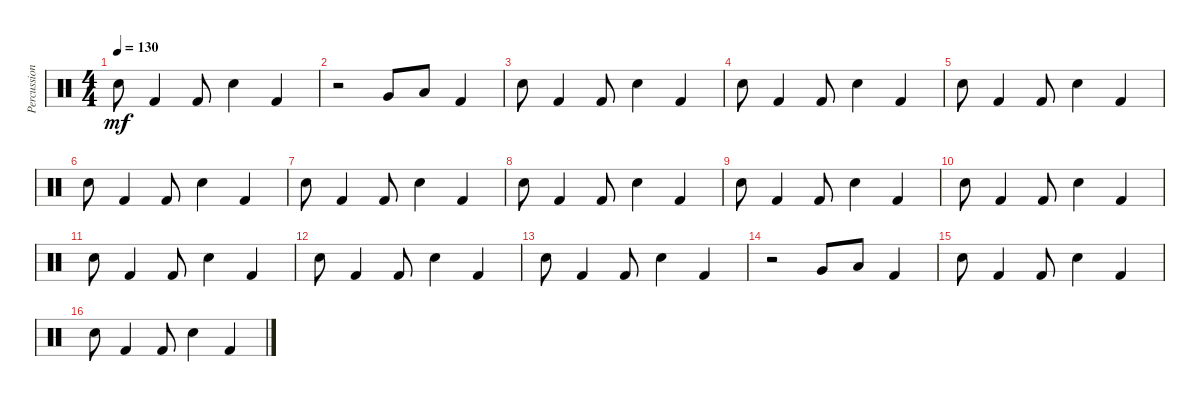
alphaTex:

\track ("Percussion" "Percussion") {instrument percussion}
\staff {score}
\articulation defaults
\ts (4 4)
\tempo 130
\clef neutral
\ks c "Electric Snare (hit)".8{dy mf} "Kick (hit) 2".4 "Kick (hit) 2".8 "Electric Snare (hit)".4 "Kick (hit) 2".4
|
r.2 "Very Low Tom (hit)".8 "Low Tom (hit)".8 "Kick (hit) 2".4 |
"Electric Snare (hit)".8 "Kick (hit) 2".4 "Kick (hit) 2".8 "Electric Snare (hit)".4 "Kick (hit) 2".4 |
"Electric Snare (hit)".8 "Kick (hit) 2".4 "Kick (hit) 2".8 "Electric Snare (hit)".4 "Kick (hit) 2".4 |
"Electric Snare (hit)".8 "Kick (hit) 2".4 "Kick (hit) 2".8 "Electric Snare (hit)".4 "Kick (hit) 2".4 |
"Electric Snare (hit)".8 "Kick (hit) 2".4 "Kick (hit) 2".8 "Electric Snare (hit)".4 "Kick (hit) 2".4 |
"Electric Snare (hit)".8 "Kick (hit) 2".4 "Kick (hit) 2".8 "Electric Snare (hit)".4 "Kick (hit) 2".4 |
"Electric Snare (hit)".8 "Kick (hit) 2".4 "Kick (hit) 2".8 "Electric Snare (hit)".4 "Kick (hit) 2".4 |
"Electric Snare (hit)".8 "Kick (hit) 2".4 "Kick (hit) 2".8 "Electric Snare (hit)".4 "Kick (hit) 2".4 |
"Electric Snare (hit)".8 "Kick (hit) 2".4 "Kick (hit) 2".8 "Electric Snare (hit)".4 "Kick (hit) 2".4 |
"Electric Snare (hit)".8 "Kick (hit) 2".4 "Kick (hit) 2".8 "Electric Snare (hit)".4 "Kick (hit) 2".4 |
"Electric Snare (hit)".8 "Kick (hit) 2".4 "Kick (hit) 2".8 "Electric Snare (hit)".4 "Kick (hit) 2".4 |
"Electric Snare (hit)".8 "Kick (hit) 2".4 "Kick (hit) 2".8 "Electric Snare (hit)".4 "Kick (hit) 2".4 |
r.2 "Very Low Tom (hit)".8 "Low Tom (hit)".8 "Kick (hit) 2".4 |
"Electric Snare (hit)".8 "Kick (hit) 2".4 "Kick (hit) 2".8 "Electric Snare (hit)".4 "Kick (hit) 2".4 |
"Electric Snare (hit)".8 "Kick (hit) 2".4 "Kick (hit) 2".8 "Electric Snare (hit)".4 "Kick (hit) 2".4
